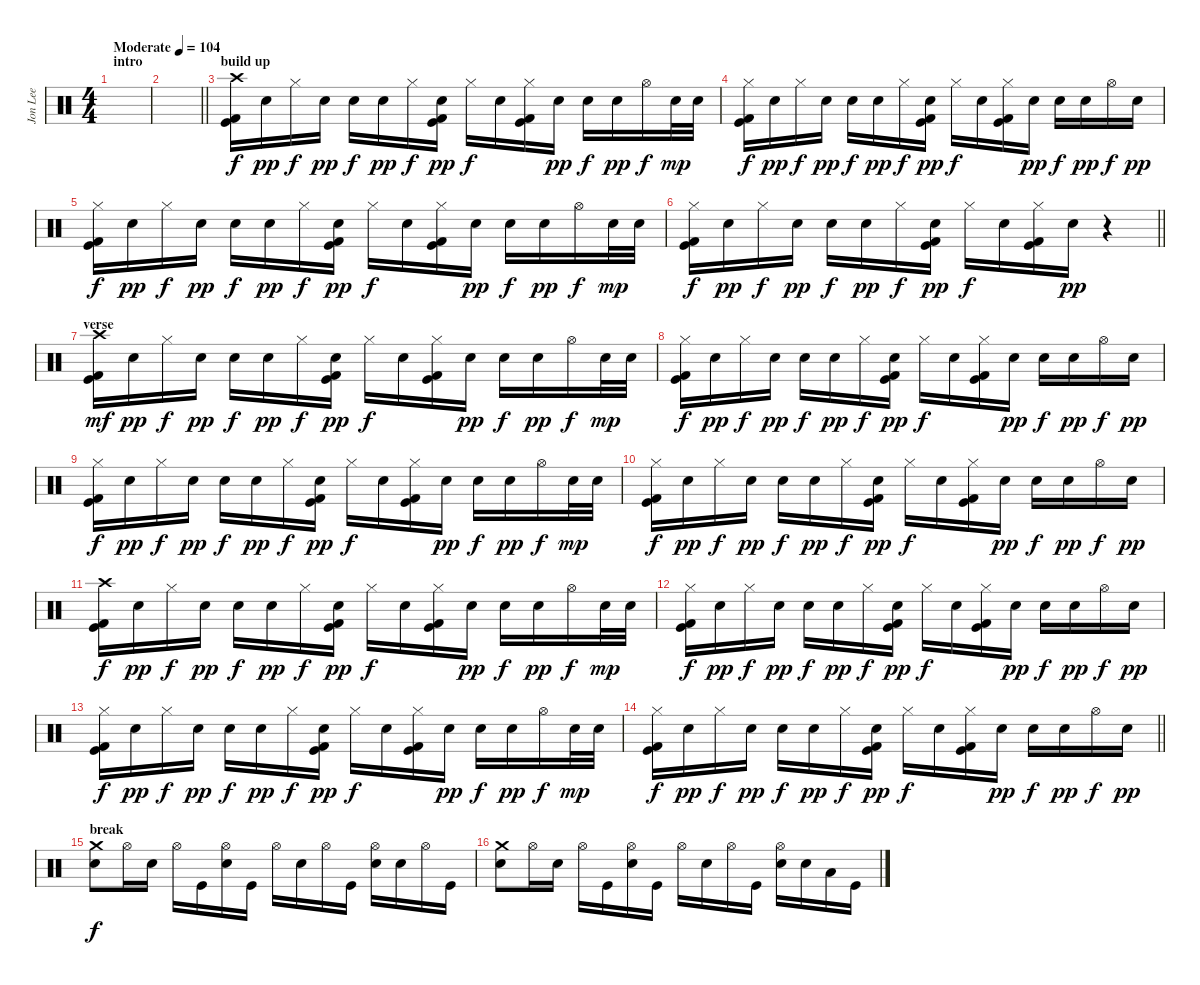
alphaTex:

\track ("Jon Lee" "Jon Lee") {instrument percussion}
\staff {score}
\articulation defaults
\ts (4 4)
\section ("" "intro")
\tempo (104 "Moderate")
\clef neutral
\ks c
|
\barLineRight lightlight
|
\section ("" "build up")
("Crash high (hit)" "Kick (hit)" "Kick (hit) 2").16{volume 11} "Electric Snare (hit)".16{dy pp} "Hi-Hat (closed)".16{dy f} "Electric Snare (hit)".16{dy pp} "Electric Snare (hit)".16{dy f} "Electric Snare (hit)".16{dy pp} "Hi-Hat (closed)".16{dy f} ("Electric Snare (hit)" "Kick (hit)" "Kick (hit) 2").16{dy pp} "Hi-Hat (closed)".16{dy f} "Electric Snare (hit)".16 ("Hi-Hat (closed)" "Kick (hit)" "Kick (hit) 2").16 "Electric Snare (hit)".16{dy pp} "Electric Snare (hit)".16{dy f} "Electric Snare (hit)".16{dy pp} "Hi-Hat (open)".16{dy f} "Electric Snare (hit)".32{dy mp} "Electric Snare (hit)".32 |
("Hi-Hat (closed)" "Kick (hit)" "Kick (hit) 2").16{dy f} "Electric Snare (hit)".16{dy pp} "Hi-Hat (closed)".16{dy f} "Electric Snare (hit)".16{dy pp} "Electric Snare (hit)".16{dy f} "Electric Snare (hit)".16{dy pp} "Hi-Hat (closed)".16{dy f} ("Electric Snare (hit)" "Kick (hit)" "Kick (hit) 2").16{dy pp} "Hi-Hat (closed)".16{dy f} "Electric Snare (hit)".16 ("Hi-Hat (closed)" "Kick (hit)" "Kick (hit) 2").16 "Electric Snare (hit)".16{dy pp} "Electric Snare (hit)".16{dy f} "Electric Snare (hit)".16{dy pp} "Hi-Hat (open)".16{dy f} "Electric Snare (hit)".16{dy pp} |
("Hi-Hat (closed)" "Kick (hit)" "Kick (hit) 2").16{dy f} "Electric Snare (hit)".16{dy pp} "Hi-Hat (closed)".16{dy f} "Electric Snare (hit)".16{dy pp} "Electric Snare (hit)".16{dy f} "Electric Snare (hit)".16{dy pp} "Hi-Hat (closed)".16{dy f} ("Electric Snare (hit)" "Kick (hit)" "Kick (hit) 2").16{dy pp} "Hi-Hat (closed)".16{dy f} "Electric Snare (hit)".16 ("Hi-Hat (closed)" "Kick (hit)" "Kick (hit) 2").16 "Electric Snare (hit)".16{dy pp} "Electric Snare (hit)".16{dy f} "Electric Snare (hit)".16{dy pp} "Hi-Hat (open)".16{dy f} "Electric Snare (hit)".32{dy mp} "Electric Snare (hit)".32 |
\barLineRight lightlight
("Hi-Hat (closed)" "Kick (hit)" "Kick (hit) 2").16{dy f} "Electric Snare (hit)".16{dy pp} "Hi-Hat (closed)".16{dy f} "Electric Snare (hit)".16{dy pp} "Electric Snare (hit)".16{dy f} "Electric Snare (hit)".16{dy pp} "Hi-Hat (closed)".16{dy f} ("Electric Snare (hit)" "Kick (hit)" "Kick (hit) 2").16{dy pp} "Hi-Hat (closed)".16{dy f} "Electric Snare (hit)".16 ("Hi-Hat (closed)" "Kick (hit)" "Kick (hit) 2").16 "Electric Snare (hit)".16{dy pp} r.4 |
\section ("" "verse")
("Crash high (hit)" "Kick (hit)" "Kick (hit) 2").16{dy mf volume 13} "Electric Snare (hit)".16{dy pp} "Hi-Hat (closed)".16{dy f} "Electric Snare (hit)".16{dy pp} "Electric Snare (hit)".16{dy f} "Electric Snare (hit)".16{dy pp} "Hi-Hat (closed)".16{dy f} ("Electric Snare (hit)" "Kick (hit)" "Kick (hit) 2").16{dy pp} "Hi-Hat (closed)".16{dy f} "Electric Snare (hit)".16 ("Hi-Hat (closed)" "Kick (hit)" "Kick (hit) 2").16 "Electric Snare (hit)".16{dy pp} "Electric Snare (hit)".16{dy f} "Electric Snare (hit)".16{dy pp} "Hi-Hat (open)".16{dy f} "Electric Snare (hit)".32{dy mp} "Electric Snare (hit)".32 |
("Hi-Hat (closed)" "Kick (hit)" "Kick (hit) 2").16{dy f} "Electric Snare (hit)".16{dy pp} "Hi-Hat (closed)".16{dy f} "Electric Snare (hit)".16{dy pp} "Electric Snare (hit)".16{dy f} "Electric Snare (hit)".16{dy pp} "Hi-Hat (closed)".16{dy f} ("Electric Snare (hit)" "Kick (hit)" "Kick (hit) 2").16{dy pp} "Hi-Hat (closed)".16{dy f} "Electric Snare (hit)".16 ("Hi-Hat (closed)" "Kick (hit)" "Kick (hit) 2").16 "Electric Snare (hit)".16{dy pp} "Electric Snare (hit)".16{dy f} "Electric Snare (hit)".16{dy pp} "Hi-Hat (open)".16{dy f} "Electric Snare (hit)".16{dy pp} |
("Hi-Hat (closed)" "Kick (hit)" "Kick (hit) 2").16{dy f} "Electric Snare (hit)".16{dy pp} "Hi-Hat (closed)".16{dy f} "Electric Snare (hit)".16{dy pp} "Electric Snare (hit)".16{dy f} "Electric Snare (hit)".16{dy pp} "Hi-Hat (closed)".16{dy f} ("Electric Snare (hit)" "Kick (hit)" "Kick (hit) 2").16{dy pp} "Hi-Hat (closed)".16{dy f} "Electric Snare (hit)".16 ("Hi-Hat (closed)" "Kick (hit)" "Kick (hit) 2").16 "Electric Snare (hit)".16{dy pp} "Electric Snare (hit)".16{dy f} "Electric Snare (hit)".16{dy pp} "Hi-Hat (open)".16{dy f} "Electric Snare (hit)".32{dy mp} "Electric Snare (hit)".32 |
("Hi-Hat (closed)" "Kick (hit)" "Kick (hit) 2").16{dy f} "Electric Snare (hit)".16{dy pp} "Hi-Hat (closed)".16{dy f} "Electric Snare (hit)".16{dy pp} "Electric Snare (hit)".16{dy f} "Electric Snare (hit)".16{dy pp} "Hi-Hat (closed)".16{dy f} ("Electric Snare (hit)" "Kick (hit)" "Kick (hit) 2").16{dy pp} "Hi-Hat (closed)".16{dy f} "Electric Snare (hit)".16 ("Hi-Hat (closed)" "Kick (hit)" "Kick (hit) 2").16 "Electric Snare (hit)".16{dy pp} "Electric Snare (hit)".16{dy f} "Electric Snare (hit)".16{dy pp} "Hi-Hat (open)".16{dy f} "Electric Snare (hit)".16{dy pp} |
("Crash high (hit)" "Kick (hit)" "Kick (hit) 2").16{dy f} "Electric Snare (hit)".16{dy pp} "Hi-Hat (closed)".16{dy f} "Electric Snare (hit)".16{dy pp} "Electric Snare (hit)".16{dy f} "Electric Snare (hit)".16{dy pp} "Hi-Hat (closed)".16{dy f} ("Electric Snare (hit)" "Kick (hit)" "Kick (hit) 2").16{dy pp} "Hi-Hat (closed)".16{dy f} "Electric Snare (hit)".16 ("Hi-Hat (closed)" "Kick (hit)" "Kick (hit) 2").16 "Electric Snare (hit)".16{dy pp} "Electric Snare (hit)".16{dy f} "Electric Snare (hit)".16{dy pp} "Hi-Hat (open)".16{dy f} "Electric Snare (hit)".32{dy mp} "Electric Snare (hit)".32 |
("Hi-Hat (closed)" "Kick (hit)" "Kick (hit) 2").16{dy f} "Electric Snare (hit)".16{dy pp} "Hi-Hat (closed)".16{dy f} "Electric Snare (hit)".16{dy pp} "Electric Snare (hit)".16{dy f} "Electric Snare (hit)".16{dy pp} "Hi-Hat (closed)".16{dy f} ("Electric Snare (hit)" "Kick (hit)" "Kick (hit) 2").16{dy pp} "Hi-Hat (closed)".16{dy f} "Electric Snare (hit)".16 ("Hi-Hat (closed)" "Kick (hit)" "Kick (hit) 2").16 "Electric Snare (hit)".16{dy pp} "Electric Snare (hit)".16{dy f} "Electric Snare (hit)".16{dy pp} "Hi-Hat (open)".16{dy f} "Electric Snare (hit)".16{dy pp} |
("Hi-Hat (closed)" "Kick (hit)" "Kick (hit) 2").16{dy f} "Electric Snare (hit)".16{dy pp} "Hi-Hat (closed)".16{dy f} "Electric Snare (hit)".16{dy pp} "Electric Snare (hit)".16{dy f} "Electric Snare (hit)".16{dy pp} "Hi-Hat (closed)".16{dy f} ("Electric Snare (hit)" "Kick (hit)" "Kick (hit) 2").16{dy pp} "Hi-Hat (closed)".16{dy f} "Electric Snare (hit)".16 ("Hi-Hat (closed)" "Kick (hit)" "Kick (hit) 2").16 "Electric Snare (hit)".16{dy pp} "Electric Snare (hit)".16{dy f} "Electric Snare (hit)".16{dy pp} "Hi-Hat (open)".16{dy f} "Electric Snare (hit)".32{dy mp} "Electric Snare (hit)".32 |
\barLineRight lightlight
("Hi-Hat (closed)" "Kick (hit)" "Kick (hit) 2").16{dy f} "Electric Snare (hit)".16{dy pp} "Hi-Hat (closed)".16{dy f} "Electric Snare (hit)".16{dy pp} "Electric Snare (hit)".16{dy f} "Electric Snare (hit)".16{dy pp} "Hi-Hat (closed)".16{dy f} ("Electric Snare (hit)" "Kick (hit)" "Kick (hit) 2").16{dy pp} "Hi-Hat (closed)".16{dy f} "Electric Snare (hit)".16 ("Hi-Hat (closed)" "Kick (hit)" "Kick (hit) 2").16 "Electric Snare (hit)".16{dy pp} "Electric Snare (hit)".16{dy f} "Electric Snare (hit)".16{dy pp} "Hi-Hat (open)".16{dy f} "Electric Snare (hit)".16{dy pp} |
\section ("" "break")
("Crash medium (hit)" "Electric Snare (hit)").8{dy f} "Hi-Hat (open)".16 "Electric Snare (hit)".16 "Hi-Hat (open)".16 "Kick (hit)".16 ("Hi-Hat (open)" "Electric Snare (hit)").16 "Kick (hit)".16 "Hi-Hat (open)".16 "Electric Snare (hit)".16 "Hi-Hat (open)".16 "Kick (hit)".16 ("Hi-Hat (open)" "Electric Snare (hit)").16 "Electric Snare (hit)".16 "Hi-Hat (open)".16 "Kick (hit)".16 |
("Crash medium (hit)" "Electric Snare (hit)").8 "Hi-Hat (open)".16 "Electric Snare (hit)".16 "Hi-Hat (open)".16 "Kick (hit)".16 ("Hi-Hat (open)" "Electric Snare (hit)").16 "Kick (hit)".16 "Hi-Hat (open)".16 "Electric Snare (hit)".16 "Hi-Hat (open)".16 "Kick (hit)".16 ("Hi-Hat (open)" "Electric Snare (hit)").16 "Electric Snare (hit)".16 "Low Tom (hit)".16 "Kick (hit)".16
